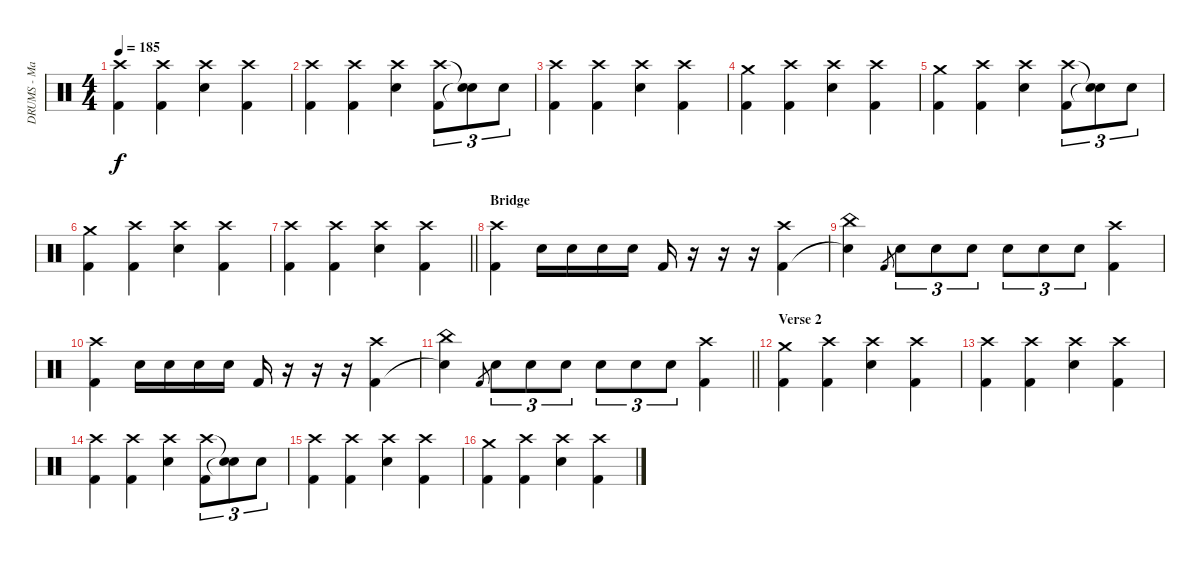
\track ("DRUMS - Mario Duplantier" "DRUMS - Ma") {instrument percussion}
\staff {score}
\articulation defaults
\ts (4 4)
\tempo 185
\clef neutral
\ks c
("Crash high (hit)" "Kick (hit) 2").4{dy f} ("Crash high (hit)" "Kick (hit) 2").4 ("Crash high (hit)" "Electric Snare (hit)").4 ("Crash high (hit)" "Kick (hit) 2").4 |
("Crash high (hit)" "Kick (hit) 2").4 ("Crash high (hit)" "Kick (hit) 2").4 ("Crash high (hit)" "Electric Snare (hit)").4 ("Crash high (hit)" "Kick (hit) 2").8{tu (3 2)} ("Snare (hit)"{t} "Snare (hit)"{t}).8{tu (3 2)} "Electric Snare (hit)".8{tu (3 2)} |
("Crash high (hit)" "Kick (hit) 2").4 ("Crash high (hit)" "Kick (hit) 2").4 ("Crash high (hit)" "Electric Snare (hit)").4 ("Crash high (hit)" "Kick (hit) 2").4 |
("Crash medium (hit)" "Kick (hit) 2").4 ("Crash high (hit)" "Kick (hit) 2").4 ("Crash high (hit)" "Electric Snare (hit)").4 ("Crash high (hit)" "Kick (hit) 2").4 |
("Crash medium (hit)" "Kick (hit) 2").4 ("Crash high (hit)" "Kick (hit) 2").4 ("Crash high (hit)" "Electric Snare (hit)").4 ("Crash high (hit)" "Kick (hit) 2").8{tu (3 2)} ("Snare (hit)"{t} "Snare (hit)"{t}).8{tu (3 2)} "Electric Snare (hit)".8{tu (3 2)} |
("Crash medium (hit)" "Kick (hit) 2").4 ("Crash high (hit)" "Kick (hit) 2").4 ("Crash high (hit)" "Electric Snare (hit)").4 ("Crash high (hit)" "Kick (hit) 2").4 |
\barLineRight lightlight
("Crash high (hit)" "Kick (hit) 2").4 ("Crash high (hit)" "Kick (hit) 2").4 ("Crash high (hit)" "Electric Snare (hit)").4 ("Crash high (hit)" "Kick (hit) 2").4 |
\section ("" "Bridge")
("Crash high (hit)" "Kick (hit) 2").4 "Electric Snare (hit)".16 "Electric Snare (hit)".16 "Electric Snare (hit)".16 "Electric Snare (hit)".16 "Kick (hit) 2".16 r.16 r.16 r.16 ("Crash high (hit)" "Kick (hit) 2").4 |
("China (hit)" "Snare (hit)"{t}).4 "Kick (hit) 2".8{gr} "Electric Snare (hit)".8{tu (3 2)} "Electric Snare (hit)".8{tu (3 2)} "Electric Snare (hit)".8{tu (3 2)} "Electric Snare (hit)".8{tu (3 2)} "Electric Snare (hit)".8{tu (3 2)} "Electric Snare (hit)".8{tu (3 2)} ("Crash high (hit)" "Kick (hit) 2").4 |
("Crash high (hit)" "Kick (hit) 2").4 "Electric Snare (hit)".16 "Electric Snare (hit)".16 "Electric Snare (hit)".16 "Electric Snare (hit)".16 "Kick (hit) 2".16 r.16 r.16 r.16 ("Crash high (hit)" "Kick (hit) 2").4 |
\barLineRight lightlight
("China (hit)" "Snare (hit)"{t}).4 "Kick (hit) 2".8{gr} "Electric Snare (hit)".8{tu (3 2)} "Electric Snare (hit)".8{tu (3 2)} "Electric Snare (hit)".8{tu (3 2)} "Electric Snare (hit)".8{tu (3 2)} "Electric Snare (hit)".8{tu (3 2)} "Electric Snare (hit)".8{tu (3 2)} ("Crash high (hit)" "Kick (hit) 2").4 |
\section ("" "Verse 2")
("Crash medium (hit)" "Kick (hit) 2").4 ("Crash high (hit)" "Kick (hit) 2").4 ("Crash high (hit)" "Electric Snare (hit)").4 ("Crash high (hit)" "Kick (hit) 2").4 |
("Crash high (hit)" "Kick (hit) 2").4 ("Crash high (hit)" "Kick (hit) 2").4 ("Crash high (hit)" "Electric Snare (hit)").4 ("Crash high (hit)" "Kick (hit) 2").4 |
("Crash high (hit)" "Kick (hit) 2").4 ("Crash high (hit)" "Kick (hit) 2").4 ("Crash high (hit)" "Electric Snare (hit)").4 ("Crash high (hit)" "Kick (hit) 2").8{tu (3 2)} ("Snare (hit)"{t} "Snare (hit)"{t}).8{tu (3 2)} "Electric Snare (hit)".8{tu (3 2)} |
("Crash high (hit)" "Kick (hit) 2").4 ("Crash high (hit)" "Kick (hit) 2").4 ("Crash high (hit)" "Electric Snare (hit)").4 ("Crash high (hit)" "Kick (hit) 2").4 |
("Crash medium (hit)" "Kick (hit) 2").4 ("Crash high (hit)" "Kick (hit) 2").4 ("Crash high (hit)" "Electric Snare (hit)").4 ("Crash high (hit)" "Kick (hit) 2").4
